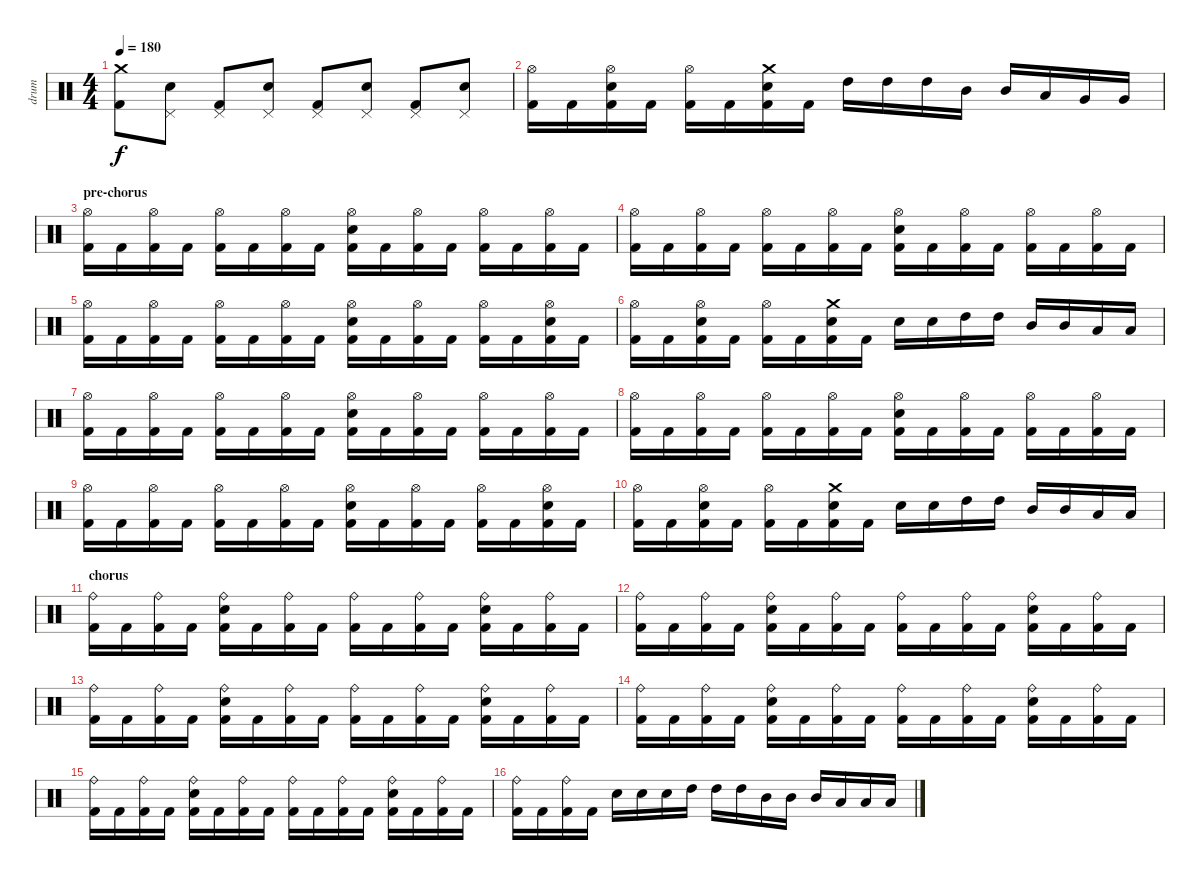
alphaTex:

\track ("drum" "drum") {instrument percussion}
\staff {score}
\articulation defaults
\ts (4 4)
\tempo 180
\clef neutral
\ks c
("Crash medium (hit)" "Kick (hit) 2").8{dy f} ("Pedal Hi-Hat (hit)" "Electric Snare (hit)").8 ("Pedal Hi-Hat (hit)" "Kick (hit) 2").8 ("Pedal Hi-Hat (hit)" "Electric Snare (hit)").8 ("Pedal Hi-Hat (hit)" "Kick (hit) 2").8 ("Pedal Hi-Hat (hit)" "Electric Snare (hit)").8 ("Pedal Hi-Hat (hit)" "Kick (hit) 2").8 ("Pedal Hi-Hat (hit)" "Electric Snare (hit)").8 |
("Hi-Hat (open)" "Kick (hit) 2").16 "Kick (hit) 2".16 ("Hi-Hat (open)" "Electric Snare (hit)" "Kick (hit) 2").16 "Kick (hit) 2".16 ("Hi-Hat (open)" "Kick (hit) 2").16 "Kick (hit) 2".16 ("Crash medium (hit)" "Electric Snare (hit)" "Kick (hit) 2").16 "Kick (hit) 2".16 "High Tom (hit)".16 "High Tom (hit)".16 "High Tom (hit)".16 "Mid Tom (hit)".16 "Mid Tom (hit)".16 "Low Tom (hit)".16 "Very Low Tom (hit)".16 "Very Low Tom (hit)".16 |
\section ("" "pre-chorus")
("Hi-Hat (open)" "Kick (hit) 2").16 "Kick (hit) 2".16 ("Hi-Hat (open)" "Kick (hit) 2").16 "Kick (hit) 2".16 ("Hi-Hat (open)" "Kick (hit) 2").16 "Kick (hit) 2".16 ("Hi-Hat (open)" "Kick (hit) 2").16 "Kick (hit) 2".16 ("Hi-Hat (open)" "Electric Snare (hit)" "Kick (hit) 2").16 "Kick (hit) 2".16 ("Hi-Hat (open)" "Kick (hit) 2").16 "Kick (hit) 2".16 ("Hi-Hat (open)" "Kick (hit) 2").16 "Kick (hit) 2".16 ("Hi-Hat (open)" "Kick (hit) 2").16 "Kick (hit) 2".16 |
("Hi-Hat (open)" "Kick (hit) 2").16 "Kick (hit) 2".16 ("Hi-Hat (open)" "Kick (hit) 2").16 "Kick (hit) 2".16 ("Hi-Hat (open)" "Kick (hit) 2").16 "Kick (hit) 2".16 ("Hi-Hat (open)" "Kick (hit) 2").16 "Kick (hit) 2".16 ("Hi-Hat (open)" "Electric Snare (hit)" "Kick (hit) 2").16 "Kick (hit) 2".16 ("Hi-Hat (open)" "Kick (hit) 2").16 "Kick (hit) 2".16 ("Hi-Hat (open)" "Kick (hit) 2").16 "Kick (hit) 2".16 ("Hi-Hat (open)" "Kick (hit) 2").16 "Kick (hit) 2".16 |
("Hi-Hat (open)" "Kick (hit) 2").16 "Kick (hit) 2".16 ("Hi-Hat (open)" "Kick (hit) 2").16 "Kick (hit) 2".16 ("Hi-Hat (open)" "Kick (hit) 2").16 "Kick (hit) 2".16 ("Hi-Hat (open)" "Kick (hit) 2").16 "Kick (hit) 2".16 ("Hi-Hat (open)" "Electric Snare (hit)" "Kick (hit) 2").16 "Kick (hit) 2".16 ("Hi-Hat (open)" "Kick (hit) 2").16 "Kick (hit) 2".16 ("Hi-Hat (open)" "Kick (hit) 2").16 "Kick (hit) 2".16 ("Hi-Hat (open)" "Electric Snare (hit)" "Kick (hit) 2").16 "Kick (hit) 2".16 |
("Hi-Hat (open)" "Kick (hit) 2").16 "Kick (hit) 2".16 ("Hi-Hat (open)" "Electric Snare (hit)" "Kick (hit) 2").16 "Kick (hit) 2".16 ("Hi-Hat (open)" "Kick (hit) 2").16 "Kick (hit) 2".16 ("Crash medium (hit)" "Electric Snare (hit)" "Kick (hit) 2").16 "Kick (hit) 2".16 "Electric Snare (hit)".16 "Electric Snare (hit)".16 "High Tom (hit)".16 "High Tom (hit)".16 "Mid Tom (hit)".16 "Mid Tom (hit)".16 "Low Tom (hit)".16 "Low Tom (hit)".16 |
("Hi-Hat (open)" "Kick (hit) 2").16 "Kick (hit) 2".16 ("Hi-Hat (open)" "Kick (hit) 2").16 "Kick (hit) 2".16 ("Hi-Hat (open)" "Kick (hit) 2").16 "Kick (hit) 2".16 ("Hi-Hat (open)" "Kick (hit) 2").16 "Kick (hit) 2".16 ("Hi-Hat (open)" "Electric Snare (hit)" "Kick (hit) 2").16 "Kick (hit) 2".16 ("Hi-Hat (open)" "Kick (hit) 2").16 "Kick (hit) 2".16 ("Hi-Hat (open)" "Kick (hit) 2").16 "Kick (hit) 2".16 ("Hi-Hat (open)" "Kick (hit) 2").16 "Kick (hit) 2".16 |
("Hi-Hat (open)" "Kick (hit) 2").16 "Kick (hit) 2".16 ("Hi-Hat (open)" "Kick (hit) 2").16 "Kick (hit) 2".16 ("Hi-Hat (open)" "Kick (hit) 2").16 "Kick (hit) 2".16 ("Hi-Hat (open)" "Kick (hit) 2").16 "Kick (hit) 2".16 ("Hi-Hat (open)" "Electric Snare (hit)" "Kick (hit) 2").16 "Kick (hit) 2".16 ("Hi-Hat (open)" "Kick (hit) 2").16 "Kick (hit) 2".16 ("Hi-Hat (open)" "Kick (hit) 2").16 "Kick (hit) 2".16 ("Hi-Hat (open)" "Kick (hit) 2").16 "Kick (hit) 2".16 |
("Hi-Hat (open)" "Kick (hit) 2").16 "Kick (hit) 2".16 ("Hi-Hat (open)" "Kick (hit) 2").16 "Kick (hit) 2".16 ("Hi-Hat (open)" "Kick (hit) 2").16 "Kick (hit) 2".16 ("Hi-Hat (open)" "Kick (hit) 2").16 "Kick (hit) 2".16 ("Hi-Hat (open)" "Electric Snare (hit)" "Kick (hit) 2").16 "Kick (hit) 2".16 ("Hi-Hat (open)" "Kick (hit) 2").16 "Kick (hit) 2".16 ("Hi-Hat (open)" "Kick (hit) 2").16 "Kick (hit) 2".16 ("Hi-Hat (open)" "Electric Snare (hit)" "Kick (hit) 2").16 "Kick (hit) 2".16 |
("Hi-Hat (open)" "Kick (hit) 2").16 "Kick (hit) 2".16 ("Hi-Hat (open)" "Electric Snare (hit)" "Kick (hit) 2").16 "Kick (hit) 2".16 ("Hi-Hat (open)" "Kick (hit) 2").16 "Kick (hit) 2".16 ("Crash medium (hit)" "Electric Snare (hit)" "Kick (hit) 2").16 "Kick (hit) 2".16 "Electric Snare (hit)".16 "Electric Snare (hit)".16 "High Tom (hit)".16 "High Tom (hit)".16 "Mid Tom (hit)".16 "Mid Tom (hit)".16 "Low Tom (hit)".16 "Low Tom (hit)".16 |
\section ("" "chorus")
("Ride (bell)" "Kick (hit) 2").16 "Kick (hit) 2".16 ("Ride (bell)" "Kick (hit) 2").16 "Kick (hit) 2".16 ("Ride (bell)" "Electric Snare (hit)" "Kick (hit) 2").16 "Kick (hit) 2".16 ("Ride (bell)" "Kick (hit) 2").16 "Kick (hit) 2".16 ("Ride (bell)" "Kick (hit) 2").16 "Kick (hit) 2".16 ("Ride (bell)" "Kick (hit) 2").16 "Kick (hit) 2".16 ("Ride (bell)" "Electric Snare (hit)" "Kick (hit) 2").16 "Kick (hit) 2".16 ("Ride (bell)" "Kick (hit) 2").16 "Kick (hit) 2".16 |
("Ride (bell)" "Kick (hit) 2").16 "Kick (hit) 2".16 ("Ride (bell)" "Kick (hit) 2").16 "Kick (hit) 2".16 ("Ride (bell)" "Electric Snare (hit)" "Kick (hit) 2").16 "Kick (hit) 2".16 ("Ride (bell)" "Kick (hit) 2").16 "Kick (hit) 2".16 ("Ride (bell)" "Kick (hit) 2").16 "Kick (hit) 2".16 ("Ride (bell)" "Kick (hit) 2").16 "Kick (hit) 2".16 ("Ride (bell)" "Electric Snare (hit)" "Kick (hit) 2").16 "Kick (hit) 2".16 ("Ride (bell)" "Kick (hit) 2").16 "Kick (hit) 2".16 |
("Ride (bell)" "Kick (hit) 2").16 "Kick (hit) 2".16 ("Ride (bell)" "Kick (hit) 2").16 "Kick (hit) 2".16 ("Ride (bell)" "Electric Snare (hit)" "Kick (hit) 2").16 "Kick (hit) 2".16 ("Ride (bell)" "Kick (hit) 2").16 "Kick (hit) 2".16 ("Ride (bell)" "Kick (hit) 2").16 "Kick (hit) 2".16 ("Ride (bell)" "Kick (hit) 2").16 "Kick (hit) 2".16 ("Ride (bell)" "Electric Snare (hit)" "Kick (hit) 2").16 "Kick (hit) 2".16 ("Ride (bell)" "Kick (hit) 2").16 "Kick (hit) 2".16 |
("Ride (bell)" "Kick (hit) 2").16 "Kick (hit) 2".16 ("Ride (bell)" "Kick (hit) 2").16 "Kick (hit) 2".16 ("Ride (bell)" "Electric Snare (hit)" "Kick (hit) 2").16 "Kick (hit) 2".16 ("Ride (bell)" "Kick (hit) 2").16 "Kick (hit) 2".16 ("Ride (bell)" "Kick (hit) 2").16 "Kick (hit) 2".16 ("Ride (bell)" "Kick (hit) 2").16 "Kick (hit) 2".16 ("Ride (bell)" "Electric Snare (hit)" "Kick (hit) 2").16 "Kick (hit) 2".16 ("Ride (bell)" "Kick (hit) 2").16 "Kick (hit) 2".16 |
("Ride (bell)" "Kick (hit) 2").16 "Kick (hit) 2".16 ("Ride (bell)" "Kick (hit) 2").16 "Kick (hit) 2".16 ("Ride (bell)" "Electric Snare (hit)" "Kick (hit) 2").16 "Kick (hit) 2".16 ("Ride (bell)" "Kick (hit) 2").16 "Kick (hit) 2".16 ("Ride (bell)" "Kick (hit) 2").16 "Kick (hit) 2".16 ("Ride (bell)" "Kick (hit) 2").16 "Kick (hit) 2".16 ("Ride (bell)" "Electric Snare (hit)" "Kick (hit) 2").16 "Kick (hit) 2".16 ("Ride (bell)" "Kick (hit) 2").16 "Kick (hit) 2".16 |
("Ride (bell)" "Kick (hit) 2").16 "Kick (hit) 2".16 ("Ride (bell)" "Kick (hit) 2").16 "Kick (hit) 2".16 "Electric Snare (hit)".16 "Electric Snare (hit)".16 "Electric Snare (hit)".16 "High Tom (hit)".16 "High Tom (hit)".16 "High Tom (hit)".16 "Mid Tom (hit)".16 "Mid Tom (hit)".16 "Mid Tom (hit)".16 "Low Tom (hit)".16 "Low Tom (hit)".16 "Low Tom (hit)".16
